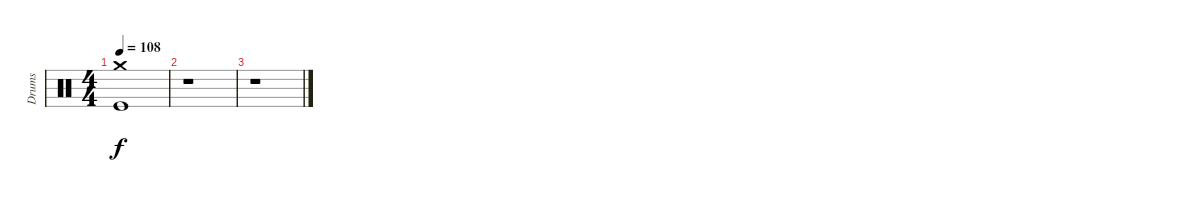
\track ("Drums" "Drums") {instrument percussion}
\staff {score}
\articulation defaults
\ts (4 4)
\tempo 108
\clef neutral
\ks c
("Crash medium (hit)" "Kick (hit)").1{dy f} |
r.1 |
r.1
